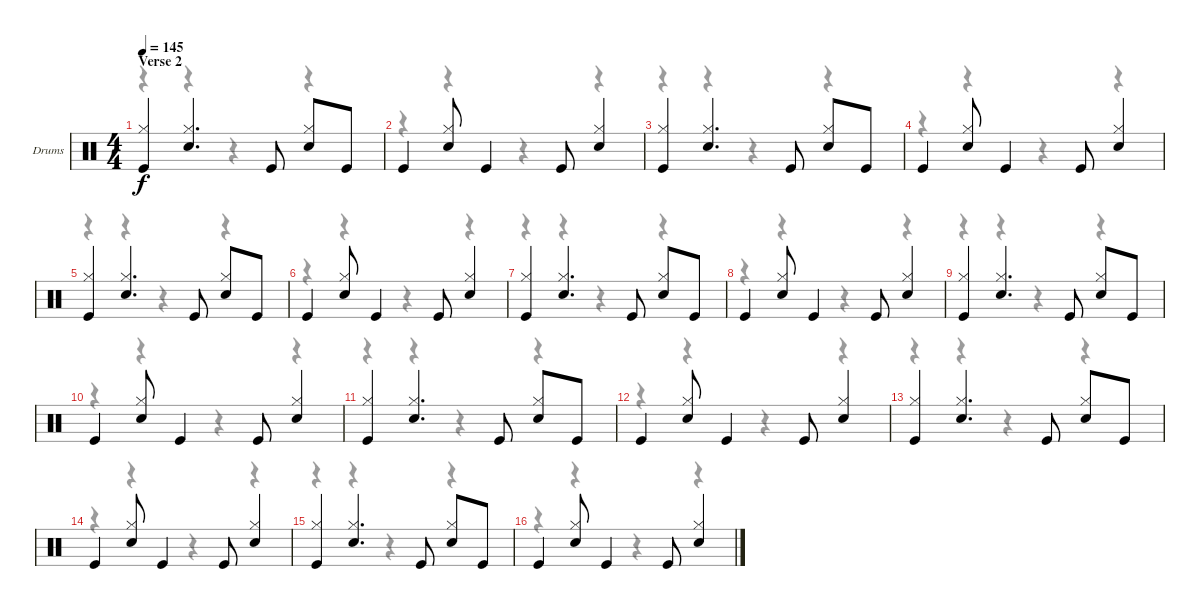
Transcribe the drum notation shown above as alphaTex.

\bracketExtendMode groupsimilarinstruments
\firstSystemTrackNameOrientation horizontal
\otherSystemsTrackNameOrientation horizontal
\track ("Drumkit" "Drums") {solo instrument percussion}
\staff {score}
\articulation defaults
\voice
\ts (4 4)
\section ("" "Verse 2")
\tempo 145
\clef neutral
\ks c
("Kick (hit)" "Hi-Hat (closed)").4{dy f} ("Snare (hit) 2" "Hi-Hat (closed)").4{d} "Kick (hit)".8 ("Snare (hit) 2" "Hi-Hat (closed)").8 "Kick (hit)".8 |
"Kick (hit)".4 ("Snare (hit) 2" "Hi-Hat (closed)").8 "Kick (hit)".4 "Kick (hit)".8 ("Snare (hit) 2" "Hi-Hat (closed)").4 |
("Kick (hit)" "Hi-Hat (closed)").4 ("Snare (hit) 2" "Hi-Hat (closed)").4{d} "Kick (hit)".8 ("Snare (hit) 2" "Hi-Hat (closed)").8 "Kick (hit)".8 |
"Kick (hit)".4 ("Snare (hit) 2" "Hi-Hat (closed)").8 "Kick (hit)".4 "Kick (hit)".8 ("Snare (hit) 2" "Hi-Hat (closed)").4 |
("Kick (hit)" "Hi-Hat (closed)").4 ("Snare (hit) 2" "Hi-Hat (closed)").4{d} "Kick (hit)".8 ("Snare (hit) 2" "Hi-Hat (closed)").8 "Kick (hit)".8 |
"Kick (hit)".4 ("Snare (hit) 2" "Hi-Hat (closed)").8 "Kick (hit)".4 "Kick (hit)".8 ("Snare (hit) 2" "Hi-Hat (closed)").4 |
("Kick (hit)" "Hi-Hat (closed)").4 ("Snare (hit) 2" "Hi-Hat (closed)").4{d} "Kick (hit)".8 ("Snare (hit) 2" "Hi-Hat (closed)").8 "Kick (hit)".8 |
"Kick (hit)".4 ("Snare (hit) 2" "Hi-Hat (closed)").8 "Kick (hit)".4 "Kick (hit)".8 ("Snare (hit) 2" "Hi-Hat (closed)").4 |
("Kick (hit)" "Hi-Hat (closed)").4 ("Snare (hit) 2" "Hi-Hat (closed)").4{d} "Kick (hit)".8 ("Snare (hit) 2" "Hi-Hat (closed)").8 "Kick (hit)".8 |
"Kick (hit)".4 ("Snare (hit) 2" "Hi-Hat (closed)").8 "Kick (hit)".4 "Kick (hit)".8 ("Snare (hit) 2" "Hi-Hat (closed)").4 |
("Kick (hit)" "Hi-Hat (closed)").4 ("Snare (hit) 2" "Hi-Hat (closed)").4{d} "Kick (hit)".8 ("Snare (hit) 2" "Hi-Hat (closed)").8 "Kick (hit)".8 |
"Kick (hit)".4 ("Snare (hit) 2" "Hi-Hat (closed)").8 "Kick (hit)".4 "Kick (hit)".8 ("Snare (hit) 2" "Hi-Hat (closed)").4 |
("Kick (hit)" "Hi-Hat (closed)").4 ("Snare (hit) 2" "Hi-Hat (closed)").4{d} "Kick (hit)".8 ("Snare (hit) 2" "Hi-Hat (closed)").8 "Kick (hit)".8 |
"Kick (hit)".4 ("Snare (hit) 2" "Hi-Hat (closed)").8 "Kick (hit)".4 "Kick (hit)".8 ("Snare (hit) 2" "Hi-Hat (closed)").4 |
("Kick (hit)" "Hi-Hat (closed)").4 ("Snare (hit) 2" "Hi-Hat (closed)").4{d} "Kick (hit)".8 ("Snare (hit) 2" "Hi-Hat (closed)").8 "Kick (hit)".8 |
"Kick (hit)".4 ("Snare (hit) 2" "Hi-Hat (closed)").8 "Kick (hit)".4 "Kick (hit)".8 ("Snare (hit) 2" "Hi-Hat (closed)").4
\voice
\clef neutral
\ottava regular
\simile none
\ks c
r.4{dy mf} r.4 r.4 r.4 |
r.4 r.4 r.4 r.4 |
r.4 r.4 r.4 r.4 |
r.4 r.4 r.4 r.4 |
r.4 r.4 r.4 r.4 |
r.4 r.4 r.4 r.4 |
r.4 r.4 r.4 r.4 |
r.4 r.4 r.4 r.4 |
r.4 r.4 r.4 r.4 |
r.4 r.4 r.4 r.4 |
r.4 r.4 r.4 r.4 |
r.4 r.4 r.4 r.4 |
r.4 r.4 r.4 r.4 |
r.4 r.4 r.4 r.4 |
r.4 r.4 r.4 r.4 |
r.4 r.4 r.4 r.4
